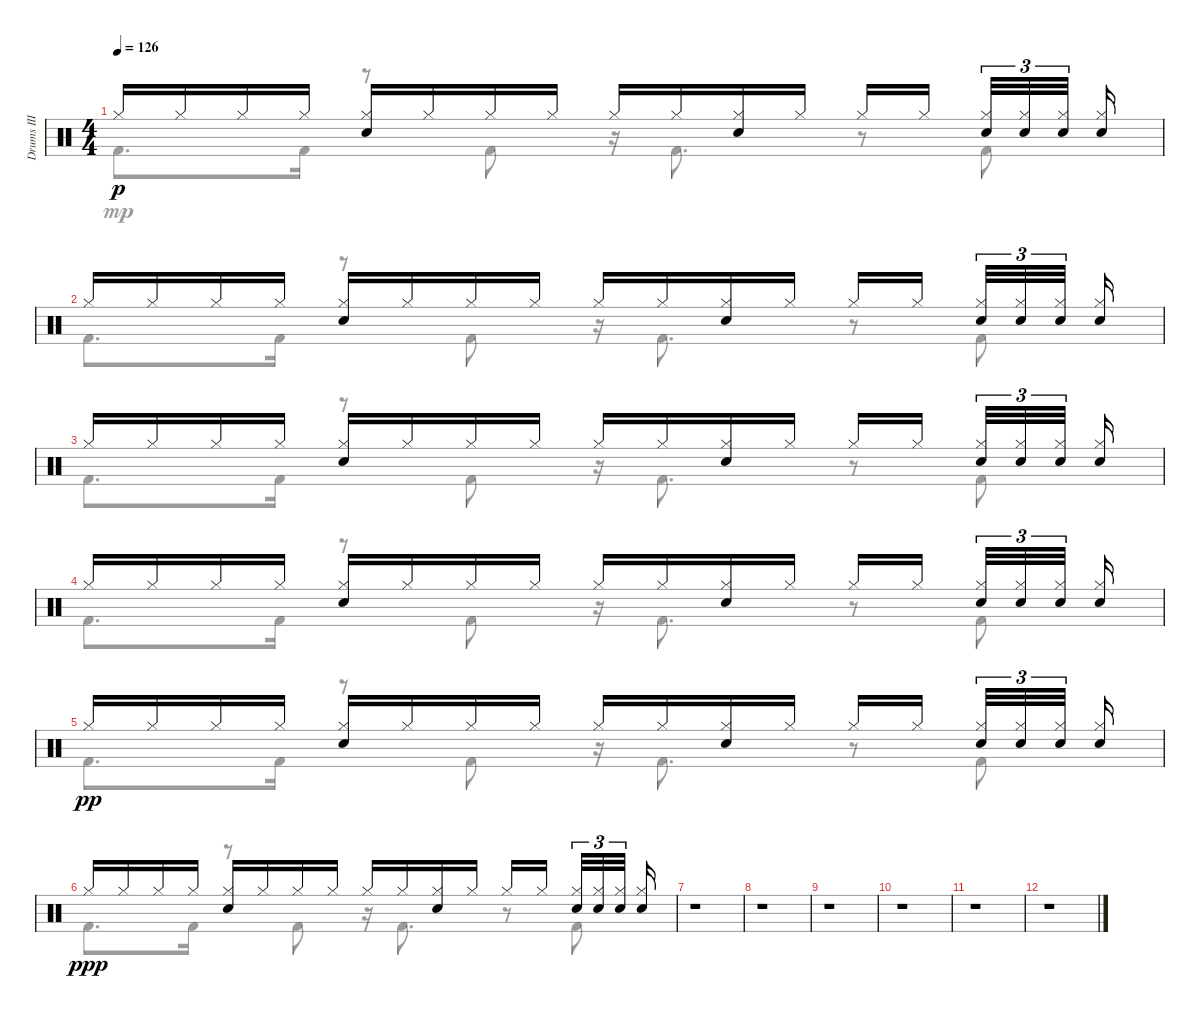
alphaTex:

\track ("Drums III" "Drums III") {instrument percussion}
\staff {score}
\articulation defaults
\voice
\ts (4 4)
\tempo 126
\clef neutral
\ks c "Hi-Hat (closed)".16{dy p} "Hi-Hat (closed)".16 "Hi-Hat (closed)".16 "Hi-Hat (closed)".16
("Hi-Hat (closed)" "Electric Snare (hit)").16 "Hi-Hat (closed)".16 "Hi-Hat (closed)".16 "Hi-Hat (closed)".16 "Hi-Hat (closed)".16 "Hi-Hat (closed)".16 ("Hi-Hat (closed)" "Electric Snare (hit)").16 "Hi-Hat (closed)".16 "Hi-Hat (closed)".16 "Hi-Hat (closed)".16{beam splitsecondary} ("Hi-Hat (closed)" "Electric Snare (hit)").32{tu (3 2)} ("Hi-Hat (closed)" "Electric Snare (hit)").32{tu (3 2)} ("Hi-Hat (closed)" "Electric Snare (hit)").32{tu (3 2) beam splitsecondary} ("Hi-Hat (closed)" "Electric Snare (hit)").16 |
"Hi-Hat (closed)".16 "Hi-Hat (closed)".16 "Hi-Hat (closed)".16 "Hi-Hat (closed)".16 ("Hi-Hat (closed)" "Electric Snare (hit)").16 "Hi-Hat (closed)".16 "Hi-Hat (closed)".16 "Hi-Hat (closed)".16 "Hi-Hat (closed)".16 "Hi-Hat (closed)".16 ("Hi-Hat (closed)" "Electric Snare (hit)").16 "Hi-Hat (closed)".16 "Hi-Hat (closed)".16 "Hi-Hat (closed)".16{beam splitsecondary} ("Hi-Hat (closed)" "Electric Snare (hit)").32{tu (3 2)} ("Hi-Hat (closed)" "Electric Snare (hit)").32{tu (3 2)} ("Hi-Hat (closed)" "Electric Snare (hit)").32{tu (3 2) beam splitsecondary} ("Hi-Hat (closed)" "Electric Snare (hit)").16 |
"Hi-Hat (closed)".16 "Hi-Hat (closed)".16 "Hi-Hat (closed)".16 "Hi-Hat (closed)".16 ("Hi-Hat (closed)" "Electric Snare (hit)").16 "Hi-Hat (closed)".16 "Hi-Hat (closed)".16 "Hi-Hat (closed)".16 "Hi-Hat (closed)".16 "Hi-Hat (closed)".16 ("Hi-Hat (closed)" "Electric Snare (hit)").16 "Hi-Hat (closed)".16 "Hi-Hat (closed)".16 "Hi-Hat (closed)".16{beam splitsecondary} ("Hi-Hat (closed)" "Electric Snare (hit)").32{tu (3 2)} ("Hi-Hat (closed)" "Electric Snare (hit)").32{tu (3 2)} ("Hi-Hat (closed)" "Electric Snare (hit)").32{tu (3 2) beam splitsecondary} ("Hi-Hat (closed)" "Electric Snare (hit)").16 |
"Hi-Hat (closed)".16 "Hi-Hat (closed)".16 "Hi-Hat (closed)".16 "Hi-Hat (closed)".16 ("Hi-Hat (closed)" "Electric Snare (hit)").16 "Hi-Hat (closed)".16 "Hi-Hat (closed)".16 "Hi-Hat (closed)".16 "Hi-Hat (closed)".16 "Hi-Hat (closed)".16 ("Hi-Hat (closed)" "Electric Snare (hit)").16 "Hi-Hat (closed)".16 "Hi-Hat (closed)".16 "Hi-Hat (closed)".16{beam splitsecondary} ("Hi-Hat (closed)" "Electric Snare (hit)").32{tu (3 2)} ("Hi-Hat (closed)" "Electric Snare (hit)").32{tu (3 2)} ("Hi-Hat (closed)" "Electric Snare (hit)").32{tu (3 2) beam splitsecondary} ("Hi-Hat (closed)" "Electric Snare (hit)").16 |
"Hi-Hat (closed)".16{dy pp} "Hi-Hat (closed)".16 "Hi-Hat (closed)".16 "Hi-Hat (closed)".16 ("Hi-Hat (closed)" "Electric Snare (hit)").16 "Hi-Hat (closed)".16 "Hi-Hat (closed)".16 "Hi-Hat (closed)".16 "Hi-Hat (closed)".16 "Hi-Hat (closed)".16 ("Hi-Hat (closed)" "Electric Snare (hit)").16 "Hi-Hat (closed)".16 "Hi-Hat (closed)".16 "Hi-Hat (closed)".16{beam splitsecondary} ("Hi-Hat (closed)" "Electric Snare (hit)").32{tu (3 2)} ("Hi-Hat (closed)" "Electric Snare (hit)").32{tu (3 2)} ("Hi-Hat (closed)" "Electric Snare (hit)").32{tu (3 2) beam splitsecondary} ("Hi-Hat (closed)" "Electric Snare (hit)").16 |
"Hi-Hat (closed)".16{dy ppp} "Hi-Hat (closed)".16 "Hi-Hat (closed)".16 "Hi-Hat (closed)".16 ("Hi-Hat (closed)" "Electric Snare (hit)").16 "Hi-Hat (closed)".16 "Hi-Hat (closed)".16 "Hi-Hat (closed)".16 "Hi-Hat (closed)".16 "Hi-Hat (closed)".16 ("Hi-Hat (closed)" "Electric Snare (hit)").16 "Hi-Hat (closed)".16 "Hi-Hat (closed)".16 "Hi-Hat (closed)".16{beam splitsecondary} ("Hi-Hat (closed)" "Electric Snare (hit)").32{tu (3 2)} ("Hi-Hat (closed)" "Electric Snare (hit)").32{tu (3 2)} ("Hi-Hat (closed)" "Electric Snare (hit)").32{tu (3 2) beam splitsecondary} ("Hi-Hat (closed)" "Electric Snare (hit)").16 |
r.1 |
r.1 |
r.1 |
r.1 |
r.1 |
r.1
\voice
\clef neutral
\ottava regular
\simile none
\ks c "Kick (hit) 2".8{d dy mp} "Kick (hit) 2".16
r.8 "Kick (hit) 2".8 r.16 "Kick (hit) 2".8{d} r.8 "Kick (hit) 2".8 |
"Kick (hit) 2".8{d} "Kick (hit) 2".16 r.8 "Kick (hit) 2".8 r.16 "Kick (hit) 2".8{d} r.8 "Kick (hit) 2".8 |
"Kick (hit) 2".8{d} "Kick (hit) 2".16 r.8 "Kick (hit) 2".8 r.16 "Kick (hit) 2".8{d} r.8 "Kick (hit) 2".8 |
"Kick (hit) 2".8{d} "Kick (hit) 2".16 r.8 "Kick (hit) 2".8 r.16 "Kick (hit) 2".8{d} r.8 "Kick (hit) 2".8 |
"Kick (hit) 2".8{d} "Kick (hit) 2".16 r.8 "Kick (hit) 2".8 r.16 "Kick (hit) 2".8{d} r.8 "Kick (hit) 2".8 |
"Kick (hit) 2".8{d} "Kick (hit) 2".16 r.8 "Kick (hit) 2".8 r.16 "Kick (hit) 2".8{d} r.8 "Kick (hit) 2".8 |
r.1 |
r.1 |
r.1 |
r.1 |
r.1 |
r.1
